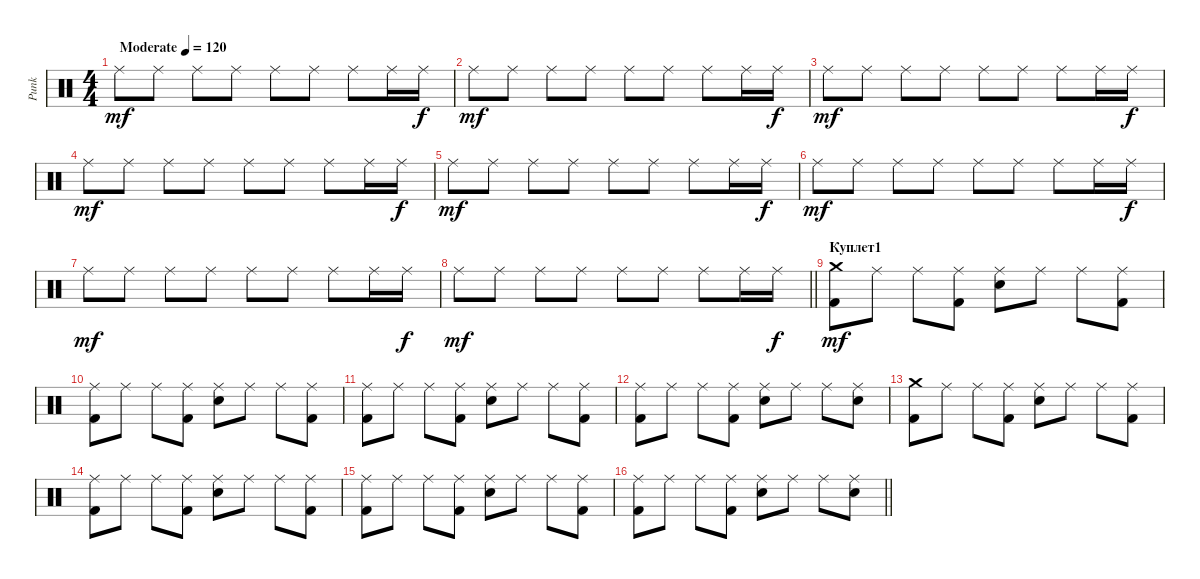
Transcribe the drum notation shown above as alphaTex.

\track ("Punk" "Punk") {instrument percussion}
\staff {score}
\articulation defaults
\ts (4 4)
\tempo (120 "Moderate")
\clef neutral
\ks c "Ride (middle)".8{dy mf} "Ride (middle)".8 "Ride (middle)".8 "Ride (middle)".8 "Ride (middle)".8 "Ride (middle)".8 "Ride (middle)".8 "Ride (middle)".16 "Ride (middle)".16{dy f}
|
"Ride (middle)".8{dy mf} "Ride (middle)".8 "Ride (middle)".8 "Ride (middle)".8 "Ride (middle)".8 "Ride (middle)".8 "Ride (middle)".8 "Ride (middle)".16 "Ride (middle)".16{dy f} |
"Ride (middle)".8{dy mf} "Ride (middle)".8 "Ride (middle)".8 "Ride (middle)".8 "Ride (middle)".8 "Ride (middle)".8 "Ride (middle)".8 "Ride (middle)".16 "Ride (middle)".16{dy f} |
"Ride (middle)".8{dy mf} "Ride (middle)".8 "Ride (middle)".8 "Ride (middle)".8 "Ride (middle)".8 "Ride (middle)".8 "Ride (middle)".8 "Ride (middle)".16 "Ride (middle)".16{dy f} |
"Ride (middle)".8{dy mf} "Ride (middle)".8 "Ride (middle)".8 "Ride (middle)".8 "Ride (middle)".8 "Ride (middle)".8 "Ride (middle)".8 "Ride (middle)".16 "Ride (middle)".16{dy f} |
"Ride (middle)".8{dy mf} "Ride (middle)".8 "Ride (middle)".8 "Ride (middle)".8 "Ride (middle)".8 "Ride (middle)".8 "Ride (middle)".8 "Ride (middle)".16 "Ride (middle)".16{dy f} |
"Ride (middle)".8{dy mf} "Ride (middle)".8 "Ride (middle)".8 "Ride (middle)".8 "Ride (middle)".8 "Ride (middle)".8 "Ride (middle)".8 "Ride (middle)".16 "Ride (middle)".16{dy f} |
\barLineRight lightlight "Ride (middle)".8{dy mf} "Ride (middle)".8 "Ride (middle)".8 "Ride (middle)".8 "Ride (middle)".8 "Ride (middle)".8 "Ride (middle)".8 "Ride (middle)".16 "Ride (middle)".16{dy f}
|
\section ("" "Куплет1")
("Crash medium (hit)" "Kick (hit) 2").8{dy mf} "Ride (middle)".8 "Ride (middle)".8 ("Ride (middle)" "Kick (hit) 2").8 ("Ride (middle)" "Electric Snare (hit)").8 "Ride (middle)".8 "Ride (middle)".8 ("Ride (middle)" "Kick (hit) 2").8 |
("Ride (middle)" "Kick (hit) 2").8 "Ride (middle)".8 "Ride (middle)".8 ("Ride (middle)" "Kick (hit) 2").8 ("Ride (middle)" "Electric Snare (hit)").8 "Ride (middle)".8 "Ride (middle)".8 ("Ride (middle)" "Kick (hit) 2").8 |
("Ride (middle)" "Kick (hit) 2").8 "Ride (middle)".8 "Ride (middle)".8 ("Ride (middle)" "Kick (hit) 2").8 ("Ride (middle)" "Electric Snare (hit)").8 "Ride (middle)".8 "Ride (middle)".8 ("Ride (middle)" "Kick (hit) 2").8 |
("Ride (middle)" "Kick (hit) 2").8 "Ride (middle)".8 "Ride (middle)".8 ("Ride (middle)" "Kick (hit) 2").8 ("Ride (middle)" "Electric Snare (hit)").8 "Ride (middle)".8 "Ride (middle)".8 ("Ride (middle)" "Electric Snare (hit)").8 |
("Crash medium (hit)" "Kick (hit) 2").8 "Ride (middle)".8 "Ride (middle)".8 ("Ride (middle)" "Kick (hit) 2").8 ("Ride (middle)" "Electric Snare (hit)").8 "Ride (middle)".8 "Ride (middle)".8 ("Ride (middle)" "Kick (hit) 2").8 |
("Ride (middle)" "Kick (hit) 2").8 "Ride (middle)".8 "Ride (middle)".8 ("Ride (middle)" "Kick (hit) 2").8 ("Ride (middle)" "Electric Snare (hit)").8 "Ride (middle)".8 "Ride (middle)".8 ("Ride (middle)" "Kick (hit) 2").8 |
("Ride (middle)" "Kick (hit) 2").8 "Ride (middle)".8 "Ride (middle)".8 ("Ride (middle)" "Kick (hit) 2").8 ("Ride (middle)" "Electric Snare (hit)").8 "Ride (middle)".8 "Ride (middle)".8 ("Ride (middle)" "Kick (hit) 2").8 |
\barLineRight lightlight
("Ride (middle)" "Kick (hit) 2").8 "Ride (middle)".8 "Ride (middle)".8 ("Ride (middle)" "Kick (hit) 2").8 ("Ride (middle)" "Electric Snare (hit)").8 "Ride (middle)".8 "Ride (middle)".8 ("Ride (middle)" "Electric Snare (hit)").8
